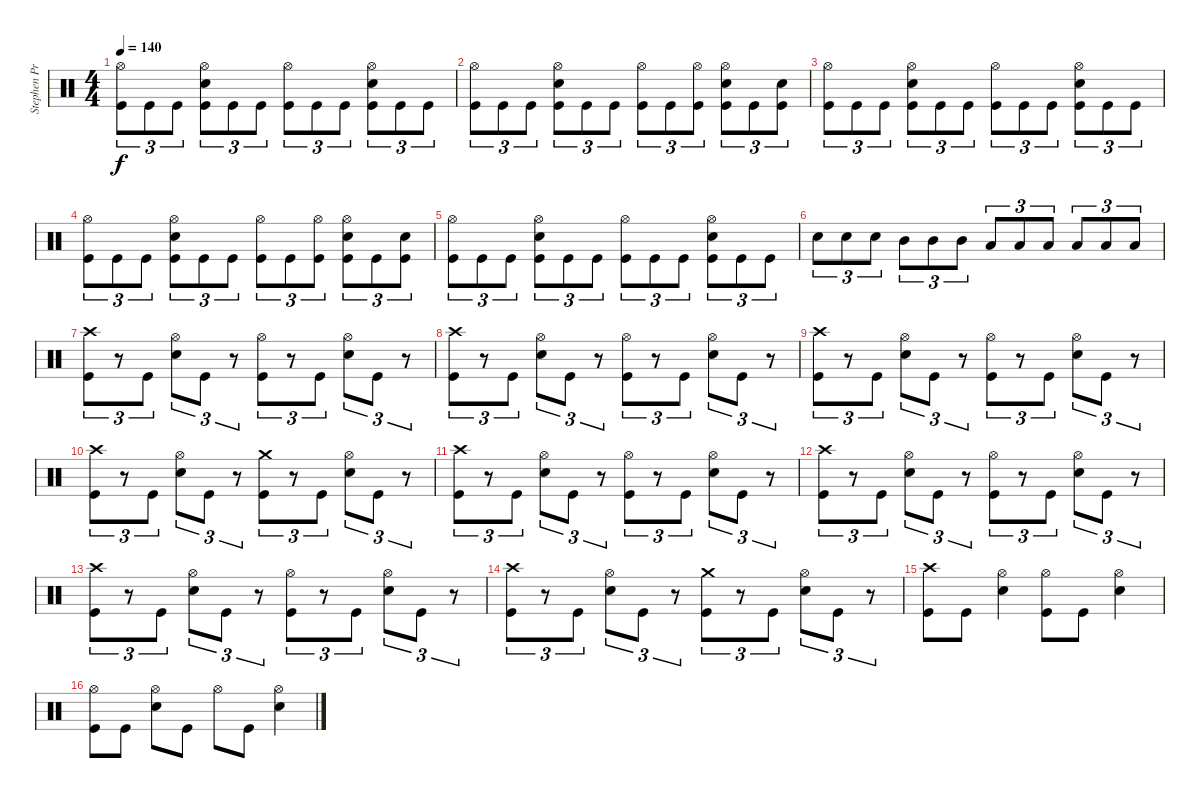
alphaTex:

\track ("Stephen Priestly-Drums" "Stephen Pr") {instrument percussion}
\staff {score}
\articulation defaults
\ts (4 4)
\tempo 140
\clef neutral
\ks c
("Hi-Hat (open)" "Kick (hit)").8{tu (3 2) dy f} "Kick (hit)".8{tu (3 2)} "Kick (hit)".8{tu (3 2)} ("Hi-Hat (open)" "Snare (hit) 2" "Kick (hit)").8{tu (3 2)} "Kick (hit)".8{tu (3 2)} "Kick (hit)".8{tu (3 2)} ("Hi-Hat (open)" "Kick (hit)").8{tu (3 2)} "Kick (hit)".8{tu (3 2)} "Kick (hit)".8{tu (3 2)} ("Hi-Hat (open)" "Snare (hit) 2" "Kick (hit)").8{tu (3 2)} "Kick (hit)".8{tu (3 2)} "Kick (hit)".8{tu (3 2)} |
("Hi-Hat (open)" "Kick (hit)").8{tu (3 2)} "Kick (hit)".8{tu (3 2)} "Kick (hit)".8{tu (3 2)} ("Hi-Hat (open)" "Snare (hit) 2" "Kick (hit)").8{tu (3 2)} "Kick (hit)".8{tu (3 2)} "Kick (hit)".8{tu (3 2)} ("Hi-Hat (open)" "Kick (hit)").8{tu (3 2)} "Kick (hit)".8{tu (3 2)} ("Hi-Hat (open)" "Kick (hit)").8{tu (3 2)} ("Hi-Hat (open)" "Snare (hit) 2" "Kick (hit)").8{tu (3 2)} "Kick (hit)".8{tu (3 2)} ("Snare (hit) 2" "Kick (hit)").8{tu (3 2)} |
("Hi-Hat (open)" "Kick (hit)").8{tu (3 2)} "Kick (hit)".8{tu (3 2)} "Kick (hit)".8{tu (3 2)} ("Hi-Hat (open)" "Snare (hit) 2" "Kick (hit)").8{tu (3 2)} "Kick (hit)".8{tu (3 2)} "Kick (hit)".8{tu (3 2)} ("Hi-Hat (open)" "Kick (hit)").8{tu (3 2)} "Kick (hit)".8{tu (3 2)} "Kick (hit)".8{tu (3 2)} ("Hi-Hat (open)" "Snare (hit) 2" "Kick (hit)").8{tu (3 2)} "Kick (hit)".8{tu (3 2)} "Kick (hit)".8{tu (3 2)} |
("Hi-Hat (open)" "Kick (hit)").8{tu (3 2)} "Kick (hit)".8{tu (3 2)} "Kick (hit)".8{tu (3 2)} ("Hi-Hat (open)" "Snare (hit) 2" "Kick (hit)").8{tu (3 2)} "Kick (hit)".8{tu (3 2)} "Kick (hit)".8{tu (3 2)} ("Hi-Hat (open)" "Kick (hit)").8{tu (3 2)} "Kick (hit)".8{tu (3 2)} ("Hi-Hat (open)" "Kick (hit)").8{tu (3 2)} ("Hi-Hat (open)" "Snare (hit) 2" "Kick (hit)").8{tu (3 2)} "Kick (hit)".8{tu (3 2)} ("Snare (hit) 2" "Kick (hit)").8{tu (3 2)} |
("Hi-Hat (open)" "Kick (hit)").8{tu (3 2)} "Kick (hit)".8{tu (3 2)} "Kick (hit)".8{tu (3 2)} ("Hi-Hat (open)" "Snare (hit) 2" "Kick (hit)").8{tu (3 2)} "Kick (hit)".8{tu (3 2)} "Kick (hit)".8{tu (3 2)} ("Hi-Hat (open)" "Kick (hit)").8{tu (3 2)} "Kick (hit)".8{tu (3 2)} "Kick (hit)".8{tu (3 2)} ("Hi-Hat (open)" "Snare (hit) 2" "Kick (hit)").8{tu (3 2)} "Kick (hit)".8{tu (3 2)} "Kick (hit)".8{tu (3 2)} |
"Snare (hit) 2".8{tu (3 2)} "Snare (hit) 2".8{tu (3 2)} "Snare (hit) 2".8{tu (3 2)} "Mid Tom (hit)".8{tu (3 2)} "Mid Tom (hit)".8{tu (3 2)} "Mid Tom (hit)".8{tu (3 2)} "Low Tom (hit)".8{tu (3 2)} "Low Tom (hit)".8{tu (3 2)} "Low Tom (hit)".8{tu (3 2)} "Low Floor Tom (hit)".8{tu (3 2)} "Low Floor Tom (hit)".8{tu (3 2)} "Low Floor Tom (hit)".8{tu (3 2)} |
("Crash high (hit)" "Kick (hit)").8{tu (3 2)} r.8{tu (3 2)} "Kick (hit)".8{tu (3 2)} ("Hi-Hat (open)" "Snare (hit) 2").8{tu (3 2)} "Kick (hit)".8{tu (3 2)} r.8{tu (3 2)} ("Hi-Hat (open)" "Kick (hit)").8{tu (3 2)} r.8{tu (3 2)} "Kick (hit)".8{tu (3 2)} ("Hi-Hat (open)" "Snare (hit) 2").8{tu (3 2)} "Kick (hit)".8{tu (3 2)} r.8{tu (3 2)} |
("Crash high (hit)" "Kick (hit)").8{tu (3 2)} r.8{tu (3 2)} "Kick (hit)".8{tu (3 2)} ("Hi-Hat (open)" "Snare (hit) 2").8{tu (3 2)} "Kick (hit)".8{tu (3 2)} r.8{tu (3 2)} ("Hi-Hat (open)" "Kick (hit)").8{tu (3 2)} r.8{tu (3 2)} "Kick (hit)".8{tu (3 2)} ("Hi-Hat (open)" "Snare (hit) 2").8{tu (3 2)} "Kick (hit)".8{tu (3 2)} r.8{tu (3 2)} |
("Crash high (hit)" "Kick (hit)").8{tu (3 2)} r.8{tu (3 2)} "Kick (hit)".8{tu (3 2)} ("Hi-Hat (open)" "Snare (hit) 2").8{tu (3 2)} "Kick (hit)".8{tu (3 2)} r.8{tu (3 2)} ("Hi-Hat (open)" "Kick (hit)").8{tu (3 2)} r.8{tu (3 2)} "Kick (hit)".8{tu (3 2)} ("Hi-Hat (open)" "Snare (hit) 2").8{tu (3 2)} "Kick (hit)".8{tu (3 2)} r.8{tu (3 2)} |
("Crash high (hit)" "Kick (hit)").8{tu (3 2)} r.8{tu (3 2)} "Kick (hit)".8{tu (3 2)} ("Hi-Hat (open)" "Snare (hit) 2").8{tu (3 2)} "Kick (hit)".8{tu (3 2)} r.8{tu (3 2)} ("Crash medium (hit)" "Kick (hit)").8{tu (3 2)} r.8{tu (3 2)} "Kick (hit)".8{tu (3 2)} ("Hi-Hat (open)" "Snare (hit) 2").8{tu (3 2)} "Kick (hit)".8{tu (3 2)} r.8{tu (3 2)} |
("Crash high (hit)" "Kick (hit)").8{tu (3 2)} r.8{tu (3 2)} "Kick (hit)".8{tu (3 2)} ("Hi-Hat (open)" "Snare (hit) 2").8{tu (3 2)} "Kick (hit)".8{tu (3 2)} r.8{tu (3 2)} ("Hi-Hat (open)" "Kick (hit)").8{tu (3 2)} r.8{tu (3 2)} "Kick (hit)".8{tu (3 2)} ("Hi-Hat (open)" "Snare (hit) 2").8{tu (3 2)} "Kick (hit)".8{tu (3 2)} r.8{tu (3 2)} |
("Crash high (hit)" "Kick (hit)").8{tu (3 2)} r.8{tu (3 2)} "Kick (hit)".8{tu (3 2)} ("Hi-Hat (open)" "Snare (hit) 2").8{tu (3 2)} "Kick (hit)".8{tu (3 2)} r.8{tu (3 2)} ("Hi-Hat (open)" "Kick (hit)").8{tu (3 2)} r.8{tu (3 2)} "Kick (hit)".8{tu (3 2)} ("Hi-Hat (open)" "Snare (hit) 2").8{tu (3 2)} "Kick (hit)".8{tu (3 2)} r.8{tu (3 2)} |
("Crash high (hit)" "Kick (hit)").8{tu (3 2)} r.8{tu (3 2)} "Kick (hit)".8{tu (3 2)} ("Hi-Hat (open)" "Snare (hit) 2").8{tu (3 2)} "Kick (hit)".8{tu (3 2)} r.8{tu (3 2)} ("Hi-Hat (open)" "Kick (hit)").8{tu (3 2)} r.8{tu (3 2)} "Kick (hit)".8{tu (3 2)} ("Hi-Hat (open)" "Snare (hit) 2").8{tu (3 2)} "Kick (hit)".8{tu (3 2)} r.8{tu (3 2)} |
("Crash high (hit)" "Kick (hit)").8{tu (3 2)} r.8{tu (3 2)} "Kick (hit)".8{tu (3 2)} ("Hi-Hat (open)" "Snare (hit) 2").8{tu (3 2)} "Kick (hit)".8{tu (3 2)} r.8{tu (3 2)} ("Crash medium (hit)" "Kick (hit)").8{tu (3 2)} r.8{tu (3 2)} "Kick (hit)".8{tu (3 2)} ("Hi-Hat (open)" "Snare (hit) 2").8{tu (3 2)} "Kick (hit)".8{tu (3 2)} r.8{tu (3 2)} |
("Crash high (hit)" "Kick (hit)").8 "Kick (hit)".8 ("Hi-Hat (open)" "Snare (hit) 2").4 ("Hi-Hat (open)" "Kick (hit)").8 "Kick (hit)".8 ("Hi-Hat (open)" "Snare (hit) 2").4 |
("Hi-Hat (open)" "Kick (hit)").8 "Kick (hit)".8 ("Hi-Hat (open)" "Snare (hit) 2").8 "Kick (hit)".8 "Hi-Hat (open)".8 "Kick (hit)".8 ("Hi-Hat (open)" "Snare (hit) 2").4
